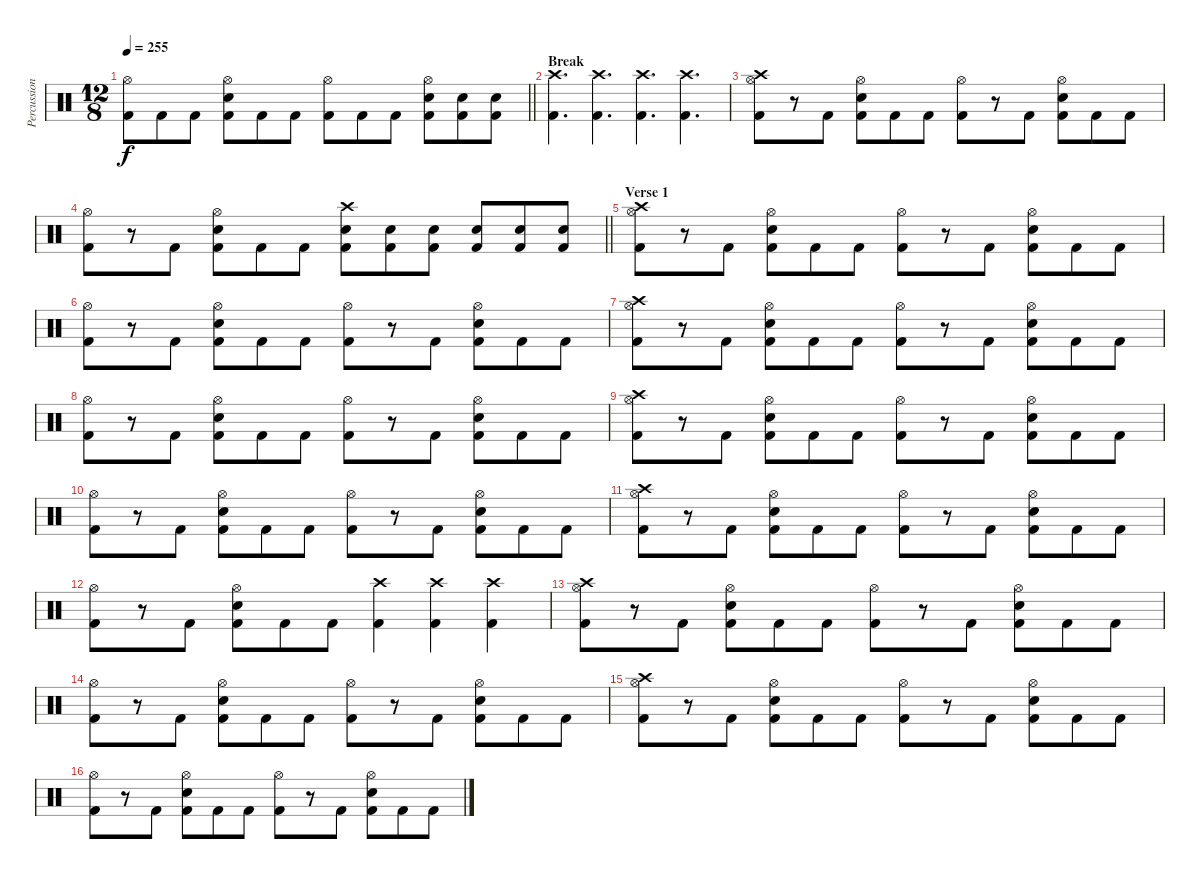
\track ("Percussion" "Percussion") {instrument percussion}
\staff {score}
\articulation defaults
\ts (12 8)
\tempo 255
\clef neutral
\barLineRight lightlight
\ks c
("Hi-Hat (open)" "Kick (hit) 2").8{dy f} "Kick (hit) 2".8 "Kick (hit) 2".8 ("Hi-Hat (open)" "Snare (hit) 2" "Kick (hit) 2").8 "Kick (hit) 2".8 "Kick (hit) 2".8 ("Hi-Hat (open)" "Kick (hit) 2").8 "Kick (hit) 2".8 "Kick (hit) 2".8 ("Hi-Hat (open)" "Snare (hit) 2" "Kick (hit) 2").8 ("Snare (hit) 2" "Kick (hit) 2").8 ("Snare (hit) 2" "Kick (hit) 2").8 |
\section ("" "Break")
("Crash high (hit)" "Kick (hit) 2").4{d} ("Crash high (hit)" "Kick (hit) 2").4{d} ("Crash high (hit)" "Kick (hit) 2").4{d} ("Crash high (hit)" "Kick (hit) 2").4{d} |
("Crash high (hit)" "Hi-Hat (open)" "Kick (hit) 2").8 r.8 "Kick (hit) 2".8 ("Hi-Hat (open)" "Snare (hit) 2" "Kick (hit) 2").8 "Kick (hit) 2".8 "Kick (hit) 2".8 ("Hi-Hat (open)" "Kick (hit) 2").8 r.8 "Kick (hit) 2".8 ("Hi-Hat (open)" "Snare (hit) 2" "Kick (hit) 2").8 "Kick (hit) 2".8 "Kick (hit) 2".8 |
\barLineRight lightlight
("Hi-Hat (open)" "Kick (hit) 2").8 r.8 "Kick (hit) 2".8 ("Hi-Hat (open)" "Snare (hit) 2" "Kick (hit) 2").8 "Kick (hit) 2".8 "Kick (hit) 2".8 ("Crash high (hit)" "Snare (hit) 2" "Kick (hit) 2").8 ("Snare (hit) 2" "Kick (hit) 2").8 ("Snare (hit) 2" "Kick (hit) 2").8 ("Snare (hit) 2" "Kick (hit) 2").8 ("Snare (hit) 2" "Kick (hit) 2").8 ("Snare (hit) 2" "Kick (hit) 2").8 |
\section ("" "Verse 1")
("Crash high (hit)" "Hi-Hat (open)" "Kick (hit) 2").8 r.8 "Kick (hit) 2".8 ("Hi-Hat (open)" "Snare (hit) 2" "Kick (hit) 2").8 "Kick (hit) 2".8 "Kick (hit) 2".8 ("Hi-Hat (open)" "Kick (hit) 2").8 r.8 "Kick (hit) 2".8 ("Hi-Hat (open)" "Snare (hit) 2" "Kick (hit) 2").8 "Kick (hit) 2".8 "Kick (hit) 2".8 |
("Hi-Hat (open)" "Kick (hit) 2").8 r.8 "Kick (hit) 2".8 ("Hi-Hat (open)" "Snare (hit) 2" "Kick (hit) 2").8 "Kick (hit) 2".8 "Kick (hit) 2".8 ("Hi-Hat (open)" "Kick (hit) 2").8 r.8 "Kick (hit) 2".8 ("Hi-Hat (open)" "Snare (hit) 2" "Kick (hit) 2").8 "Kick (hit) 2".8 "Kick (hit) 2".8 |
("Crash high (hit)" "Hi-Hat (open)" "Kick (hit) 2").8 r.8 "Kick (hit) 2".8 ("Hi-Hat (open)" "Snare (hit) 2" "Kick (hit) 2").8 "Kick (hit) 2".8 "Kick (hit) 2".8 ("Hi-Hat (open)" "Kick (hit) 2").8 r.8 "Kick (hit) 2".8 ("Hi-Hat (open)" "Snare (hit) 2" "Kick (hit) 2").8 "Kick (hit) 2".8 "Kick (hit) 2".8 |
("Hi-Hat (open)" "Kick (hit) 2").8 r.8 "Kick (hit) 2".8 ("Hi-Hat (open)" "Snare (hit) 2" "Kick (hit) 2").8 "Kick (hit) 2".8 "Kick (hit) 2".8 ("Hi-Hat (open)" "Kick (hit) 2").8 r.8 "Kick (hit) 2".8 ("Hi-Hat (open)" "Snare (hit) 2" "Kick (hit) 2").8 "Kick (hit) 2".8 "Kick (hit) 2".8 |
("Crash high (hit)" "Hi-Hat (open)" "Kick (hit) 2").8 r.8 "Kick (hit) 2".8 ("Hi-Hat (open)" "Snare (hit) 2" "Kick (hit) 2").8 "Kick (hit) 2".8 "Kick (hit) 2".8 ("Hi-Hat (open)" "Kick (hit) 2").8 r.8 "Kick (hit) 2".8 ("Hi-Hat (open)" "Snare (hit) 2" "Kick (hit) 2").8 "Kick (hit) 2".8 "Kick (hit) 2".8 |
("Hi-Hat (open)" "Kick (hit) 2").8 r.8 "Kick (hit) 2".8 ("Hi-Hat (open)" "Snare (hit) 2" "Kick (hit) 2").8 "Kick (hit) 2".8 "Kick (hit) 2".8 ("Hi-Hat (open)" "Kick (hit) 2").8 r.8 "Kick (hit) 2".8 ("Hi-Hat (open)" "Snare (hit) 2" "Kick (hit) 2").8 "Kick (hit) 2".8 "Kick (hit) 2".8 |
("Crash high (hit)" "Hi-Hat (open)" "Kick (hit) 2").8 r.8 "Kick (hit) 2".8 ("Hi-Hat (open)" "Snare (hit) 2" "Kick (hit) 2").8 "Kick (hit) 2".8 "Kick (hit) 2".8 ("Hi-Hat (open)" "Kick (hit) 2").8 r.8 "Kick (hit) 2".8 ("Hi-Hat (open)" "Snare (hit) 2" "Kick (hit) 2").8 "Kick (hit) 2".8 "Kick (hit) 2".8 |
("Hi-Hat (open)" "Kick (hit) 2").8 r.8 "Kick (hit) 2".8 ("Hi-Hat (open)" "Snare (hit) 2" "Kick (hit) 2").8 "Kick (hit) 2".8 "Kick (hit) 2".8 ("Crash high (hit)" "Kick (hit) 2").4 ("Crash high (hit)" "Kick (hit) 2").4 ("Crash high (hit)" "Kick (hit) 2").4 |
("Crash high (hit)" "Hi-Hat (open)" "Kick (hit) 2").8 r.8 "Kick (hit) 2".8 ("Hi-Hat (open)" "Snare (hit) 2" "Kick (hit) 2").8 "Kick (hit) 2".8 "Kick (hit) 2".8 ("Hi-Hat (open)" "Kick (hit) 2").8 r.8 "Kick (hit) 2".8 ("Hi-Hat (open)" "Snare (hit) 2" "Kick (hit) 2").8 "Kick (hit) 2".8 "Kick (hit) 2".8 |
("Hi-Hat (open)" "Kick (hit) 2").8 r.8 "Kick (hit) 2".8 ("Hi-Hat (open)" "Snare (hit) 2" "Kick (hit) 2").8 "Kick (hit) 2".8 "Kick (hit) 2".8 ("Hi-Hat (open)" "Kick (hit) 2").8 r.8 "Kick (hit) 2".8 ("Hi-Hat (open)" "Snare (hit) 2" "Kick (hit) 2").8 "Kick (hit) 2".8 "Kick (hit) 2".8 |
("Crash high (hit)" "Hi-Hat (open)" "Kick (hit) 2").8 r.8 "Kick (hit) 2".8 ("Hi-Hat (open)" "Snare (hit) 2" "Kick (hit) 2").8 "Kick (hit) 2".8 "Kick (hit) 2".8 ("Hi-Hat (open)" "Kick (hit) 2").8 r.8 "Kick (hit) 2".8 ("Hi-Hat (open)" "Snare (hit) 2" "Kick (hit) 2").8 "Kick (hit) 2".8 "Kick (hit) 2".8 |
("Hi-Hat (open)" "Kick (hit) 2").8 r.8 "Kick (hit) 2".8 ("Hi-Hat (open)" "Snare (hit) 2" "Kick (hit) 2").8 "Kick (hit) 2".8 "Kick (hit) 2".8 ("Hi-Hat (open)" "Kick (hit) 2").8 r.8 "Kick (hit) 2".8 ("Hi-Hat (open)" "Snare (hit) 2" "Kick (hit) 2").8 "Kick (hit) 2".8 "Kick (hit) 2".8
